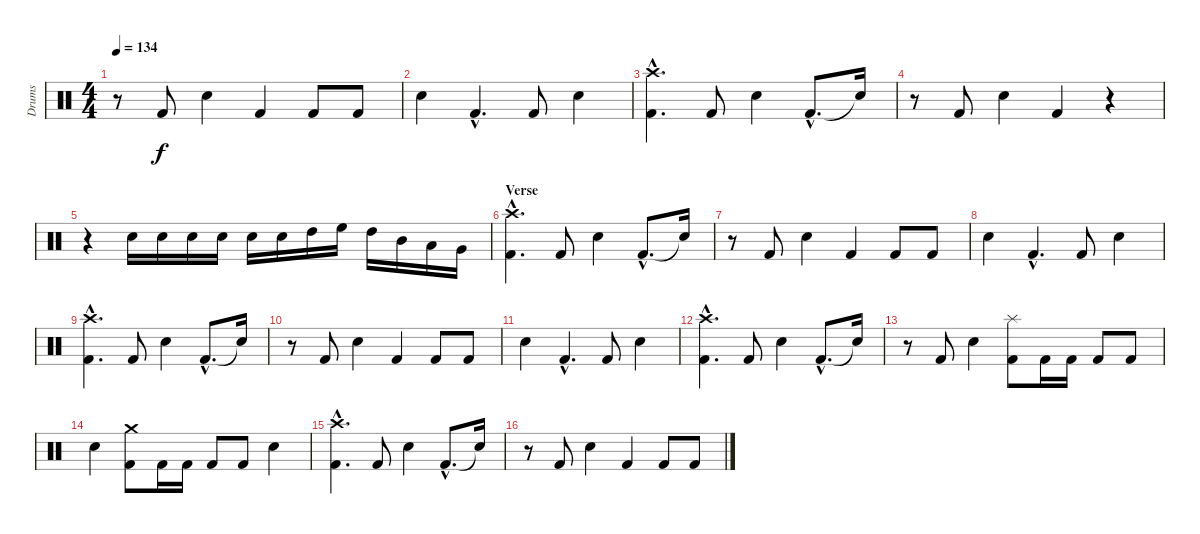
\track ("Drums" "Drums") {instrument percussion}
\staff {score}
\articulation defaults
\ts (4 4)
\tempo 134
\clef neutral
\ks c
r.8{dy f} "Kick (hit) 2".8 "Snare (hit) 2".4 "Kick (hit) 2".4 "Kick (hit) 2".8 "Kick (hit) 2".8 |
"Snare (hit) 2".4 "Kick (hit) 2"{hac}.4{d} "Kick (hit) 2".8 "Snare (hit) 2".4 |
("Kick (hit) 2"{hac} "Crash high (hit)"{hac}).4{d} "Kick (hit) 2".8 "Snare (hit) 2".4 "Kick (hit) 2"{hac}.8{d} "Snare (hit)"{t}.16 |
r.8 "Kick (hit) 2".8 "Snare (hit) 2".4 "Kick (hit) 2".4 r.4 |
r.4 "Snare (hit) 2".16 "Snare (hit) 2".16 "Snare (hit) 2".16 "Snare (hit) 2".16 "Snare (hit) 2".16 "Snare (hit) 2".16 "High Tom (hit)".16 "High Floor Tom (hit)".16 "High Tom (hit)".16 "Mid Tom (hit)".16 "Low Tom (hit)".16 "Very Low Tom (hit)".16 |
\section ("" "Verse")
("Kick (hit) 2"{hac} "Crash high (hit)"{hac}).4{d} "Kick (hit) 2".8 "Snare (hit) 2".4 "Kick (hit) 2"{hac}.8{d} "Snare (hit)"{t}.16 |
r.8 "Kick (hit) 2".8 "Snare (hit) 2".4 "Kick (hit) 2".4 "Kick (hit) 2".8 "Kick (hit) 2".8 |
"Snare (hit) 2".4 "Kick (hit) 2"{hac}.4{d} "Kick (hit) 2".8 "Snare (hit) 2".4 |
("Kick (hit) 2"{hac} "Crash high (hit)"{hac}).4{d} "Kick (hit) 2".8 "Snare (hit) 2".4 "Kick (hit) 2"{hac}.8{d} "Snare (hit)"{t}.16 |
r.8 "Kick (hit) 2".8 "Snare (hit) 2".4 "Kick (hit) 2".4 "Kick (hit) 2".8 "Kick (hit) 2".8 |
"Snare (hit) 2".4 "Kick (hit) 2"{hac}.4{d} "Kick (hit) 2".8 "Snare (hit) 2".4 |
("Kick (hit) 2"{hac} "Crash high (hit)"{hac}).4{d} "Kick (hit) 2".8 "Snare (hit) 2".4 "Kick (hit) 2"{hac}.8{d} "Snare (hit)"{t}.16 |
r.8 "Kick (hit) 2".8 "Snare (hit) 2".4 ("Kick (hit) 2" "Splash (hit)").8 "Kick (hit) 2".16 "Kick (hit) 2".16 "Kick (hit) 2".8 "Kick (hit) 2".8 |
"Snare (hit) 2".4 ("Kick (hit) 2" "Crash medium (hit)").8 "Kick (hit) 2".16 "Kick (hit) 2".16 "Kick (hit) 2".8 "Kick (hit) 2".8 "Snare (hit) 2".4 |
("Kick (hit) 2"{hac} "Crash high (hit)"{hac}).4{d} "Kick (hit) 2".8 "Snare (hit) 2".4 "Kick (hit) 2"{hac}.8{d} "Snare (hit)"{t}.16 |
r.8 "Kick (hit) 2".8 "Snare (hit) 2".4 "Kick (hit) 2".4 "Kick (hit) 2".8 "Kick (hit) 2".8
